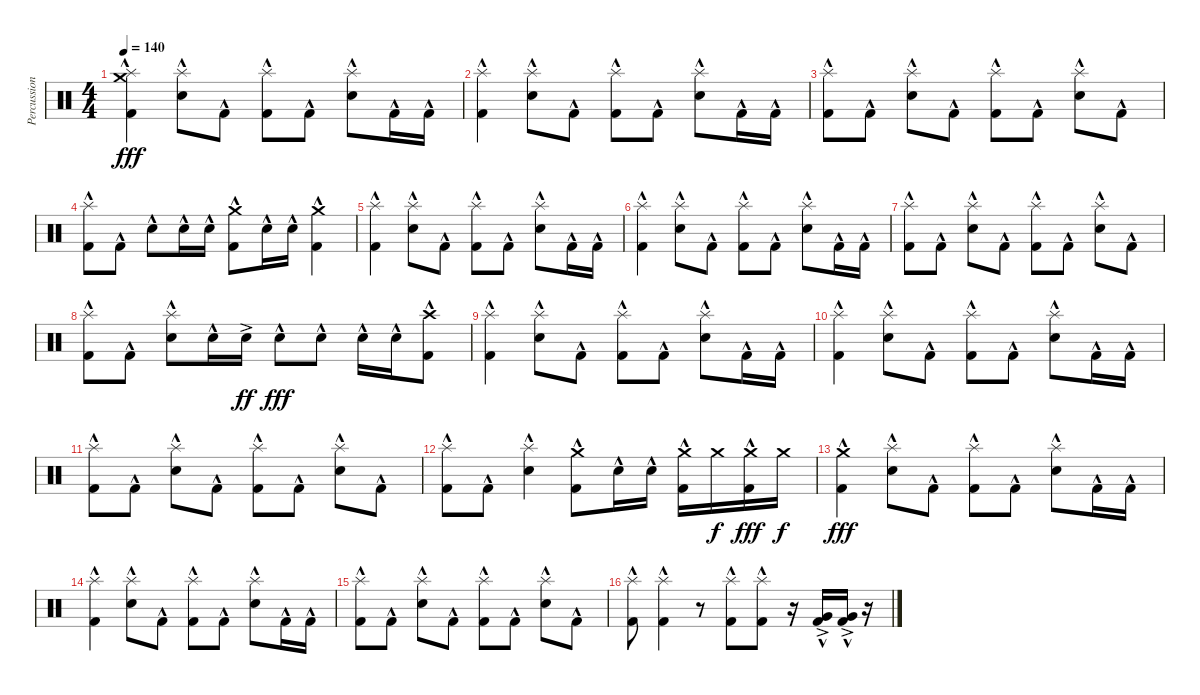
\track ("Percussion" "Percussion") {instrument percussion}
\staff {score}
\articulation defaults
\ts (4 4)
\tempo 140
\clef neutral
\ks c
("Crash medium (hit)" "Splash (hit)" "Kick (hit) 2"{hac}).4{dy fff} ("Splash (hit)" "Electric Snare (hit)"{hac}).8 "Kick (hit) 2"{hac}.8 ("Splash (hit)" "Kick (hit) 2"{hac}).8 "Kick (hit) 2"{hac}.8 ("Splash (hit)" "Electric Snare (hit)"{hac}).8 "Kick (hit) 2"{hac}.16 "Kick (hit) 2"{hac}.16 |
("Splash (hit)" "Kick (hit) 2"{hac}).4 ("Splash (hit)" "Electric Snare (hit)"{hac}).8 "Kick (hit) 2"{hac}.8 ("Splash (hit)" "Kick (hit) 2"{hac}).8 "Kick (hit) 2"{hac}.8 ("Splash (hit)" "Electric Snare (hit)"{hac}).8 "Kick (hit) 2"{hac}.16 "Kick (hit) 2"{hac}.16 |
("Splash (hit)" "Kick (hit) 2"{hac}).8 "Kick (hit) 2"{hac}.8 ("Splash (hit)" "Electric Snare (hit)"{hac}).8 "Kick (hit) 2"{hac}.8 ("Splash (hit)" "Kick (hit) 2"{hac}).8 "Kick (hit) 2"{hac}.8 ("Splash (hit)" "Electric Snare (hit)"{hac}).8 "Kick (hit) 2"{hac}.8 |
("Splash (hit)" "Kick (hit) 2"{hac}).8 "Kick (hit) 2"{hac}.8 "Electric Snare (hit)"{hac}.8 "Electric Snare (hit)"{hac}.16 "Electric Snare (hit)"{hac}.16 ("Crash medium (hit)" "Kick (hit) 2"{hac}).8 "Electric Snare (hit)"{hac}.16 "Electric Snare (hit)"{hac}.16 ("Crash medium (hit)" "Kick (hit) 2"{hac}).4 |
("Splash (hit)" "Kick (hit) 2"{hac}).4 ("Splash (hit)" "Electric Snare (hit)"{hac}).8 "Kick (hit) 2"{hac}.8 ("Splash (hit)" "Kick (hit) 2"{hac}).8 "Kick (hit) 2"{hac}.8 ("Splash (hit)" "Electric Snare (hit)"{hac}).8 "Kick (hit) 2"{hac}.16 "Kick (hit) 2"{hac}.16 |
("Splash (hit)" "Kick (hit) 2"{hac}).4 ("Splash (hit)" "Electric Snare (hit)"{hac}).8 "Kick (hit) 2"{hac}.8 ("Splash (hit)" "Kick (hit) 2"{hac}).8 "Kick (hit) 2"{hac}.8 ("Splash (hit)" "Electric Snare (hit)"{hac}).8 "Kick (hit) 2"{hac}.16 "Kick (hit) 2"{hac}.16 |
("Splash (hit)" "Kick (hit) 2"{hac}).8 "Kick (hit) 2"{hac}.8 ("Splash (hit)" "Electric Snare (hit)"{hac}).8 "Kick (hit) 2"{hac}.8 ("Splash (hit)" "Kick (hit) 2"{hac}).8 "Kick (hit) 2"{hac}.8 ("Splash (hit)" "Electric Snare (hit)"{hac}).8 "Kick (hit) 2"{hac}.8 |
("Splash (hit)" "Kick (hit) 2"{hac}).8 "Kick (hit) 2"{hac}.8 ("Splash (hit)" "Electric Snare (hit)"{hac}).8 "Electric Snare (hit)"{hac}.16 "Electric Snare (hit)"{ac}.16{dy ff} "Electric Snare (hit)"{hac}.8{dy fff} "Electric Snare (hit)"{hac}.8 "Electric Snare (hit)"{hac}.16 "Electric Snare (hit)"{hac}.16 ("Crash high (hit)" "Kick (hit) 2"{hac}).8 |
("Splash (hit)" "Kick (hit) 2"{hac}).4 ("Splash (hit)" "Electric Snare (hit)"{hac}).8 "Kick (hit) 2"{hac}.8 ("Splash (hit)" "Kick (hit) 2"{hac}).8 "Kick (hit) 2"{hac}.8 ("Splash (hit)" "Electric Snare (hit)"{hac}).8 "Kick (hit) 2"{hac}.16 "Kick (hit) 2"{hac}.16 |
("Splash (hit)" "Kick (hit) 2"{hac}).4 ("Splash (hit)" "Electric Snare (hit)"{hac}).8 "Kick (hit) 2"{hac}.8 ("Splash (hit)" "Kick (hit) 2"{hac}).8 "Kick (hit) 2"{hac}.8 ("Splash (hit)" "Electric Snare (hit)"{hac}).8 "Kick (hit) 2"{hac}.16 "Kick (hit) 2"{hac}.16 |
("Splash (hit)" "Kick (hit) 2"{hac}).8 "Kick (hit) 2"{hac}.8 ("Splash (hit)" "Electric Snare (hit)"{hac}).8 "Kick (hit) 2"{hac}.8 ("Splash (hit)" "Kick (hit) 2"{hac}).8 "Kick (hit) 2"{hac}.8 ("Splash (hit)" "Electric Snare (hit)"{hac}).8 "Kick (hit) 2"{hac}.8 |
("Splash (hit)" "Kick (hit) 2"{hac}).8 "Kick (hit) 2"{hac}.8 ("Splash (hit)" "Electric Snare (hit)"{hac}).4 ("Crash medium (hit)" "Kick (hit) 2"{hac}).8 "Electric Snare (hit)"{hac}.16 "Electric Snare (hit)"{hac}.16 ("Crash medium (hit)" "Kick (hit) 2"{hac}).16 "Crash medium (hit)".16{dy f} ("Crash medium (hit)" "Kick (hit) 2"{hac}).16{dy fff} "Crash medium (hit)".16{dy f} |
("Crash medium (hit)" "Kick (hit) 2"{hac}).4{dy fff} ("Splash (hit)" "Electric Snare (hit)"{hac}).8 "Kick (hit) 2"{hac}.8 ("Splash (hit)" "Kick (hit) 2"{hac}).8 "Kick (hit) 2"{hac}.8 ("Splash (hit)" "Electric Snare (hit)"{hac}).8 "Kick (hit) 2"{hac}.16 "Kick (hit) 2"{hac}.16 |
("Splash (hit)" "Kick (hit) 2"{hac}).4 ("Splash (hit)" "Electric Snare (hit)"{hac}).8 "Kick (hit) 2"{hac}.8 ("Splash (hit)" "Kick (hit) 2"{hac}).8 "Kick (hit) 2"{hac}.8 ("Splash (hit)" "Electric Snare (hit)"{hac}).8 "Kick (hit) 2"{hac}.16 "Kick (hit) 2"{hac}.16 |
("Splash (hit)" "Kick (hit) 2"{hac}).8 "Kick (hit) 2"{hac}.8 ("Splash (hit)" "Electric Snare (hit)"{hac}).8 "Kick (hit) 2"{hac}.8 ("Splash (hit)" "Kick (hit) 2"{hac}).8 "Kick (hit) 2"{hac}.8 ("Splash (hit)" "Electric Snare (hit)"{hac}).8 "Kick (hit) 2"{hac}.8 |
("Splash (hit)" "Kick (hit) 2"{hac}).8 ("Splash (hit)" "Kick (hit) 2"{hac}).4 r.8 ("Splash (hit)" "Kick (hit) 2"{hac}).8 ("Splash (hit)" "Kick (hit) 2"{hac}).8 r.16 ("Very Low Tom (hit)"{ac} "Kick (hit) 2"{hac}).16 ("Very Low Tom (hit)"{ac} "Kick (hit) 2"{hac}).16 r.16
